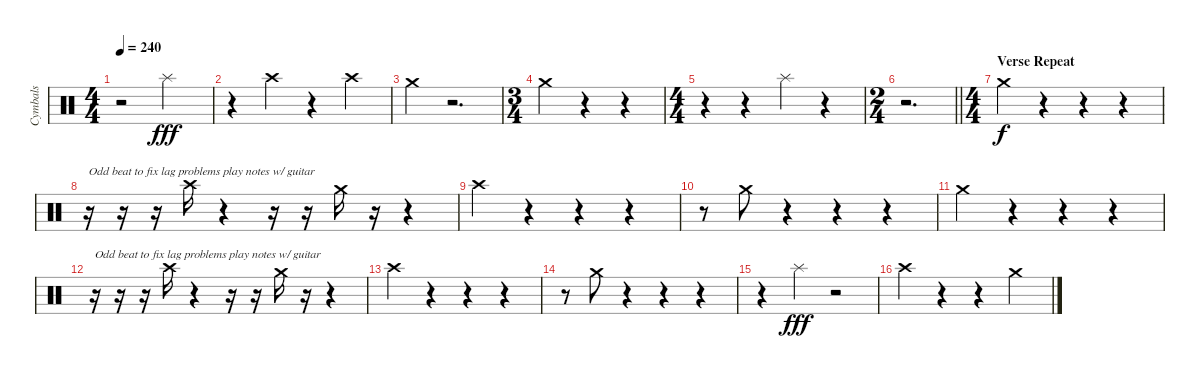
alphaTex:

\track ("Cymbals" "Cymbals") {instrument percussion}
\staff {score}
\articulation defaults
\ts (4 4)
\tempo 240
\clef neutral
\ks c
r.2{dy fff} "Splash (hit)".2 |
r.4 "Crash high (hit)".4 r.4 "Crash high (hit)".4 |
"Crash medium (hit)".4 r.2{d} |
\ts (3 4)
"Crash medium (hit)".4 r.4 r.4 |
\ts (4 4)
r.4 r.4 "Splash (hit)".4 r.4 |
\ts (2 4)
\barLineRight lightlight
r.2{d} |
\ts (4 4)
\section ("" "Verse Repeat")
"Crash medium (hit)".4{dy f} r.4 r.4 r.4 |
r.16{txt "Odd beat to fix lag problems play notes w/ guitar"} r.16 r.16 "Crash high (hit)".16 r.4 r.16 r.16 "Crash medium (hit)".16 r.16 r.4 |
"Crash high (hit)".4 r.4 r.4 r.4 |
r.8 "Crash medium (hit)".8 r.4 r.4 r.4 |
"Crash medium (hit)".4 r.4 r.4 r.4 |
r.16{txt "Odd beat to fix lag problems play notes w/ guitar"} r.16 r.16 "Crash high (hit)".16 r.4 r.16 r.16 "Crash medium (hit)".16 r.16 r.4 |
"Crash high (hit)".4 r.4 r.4 r.4 |
r.8 "Crash medium (hit)".8 r.4 r.4 r.4 |
r.4 "Splash (hit)".4{dy fff} r.2 |
"Crash high (hit)".4 r.4 r.4 "Crash medium (hit)".4
